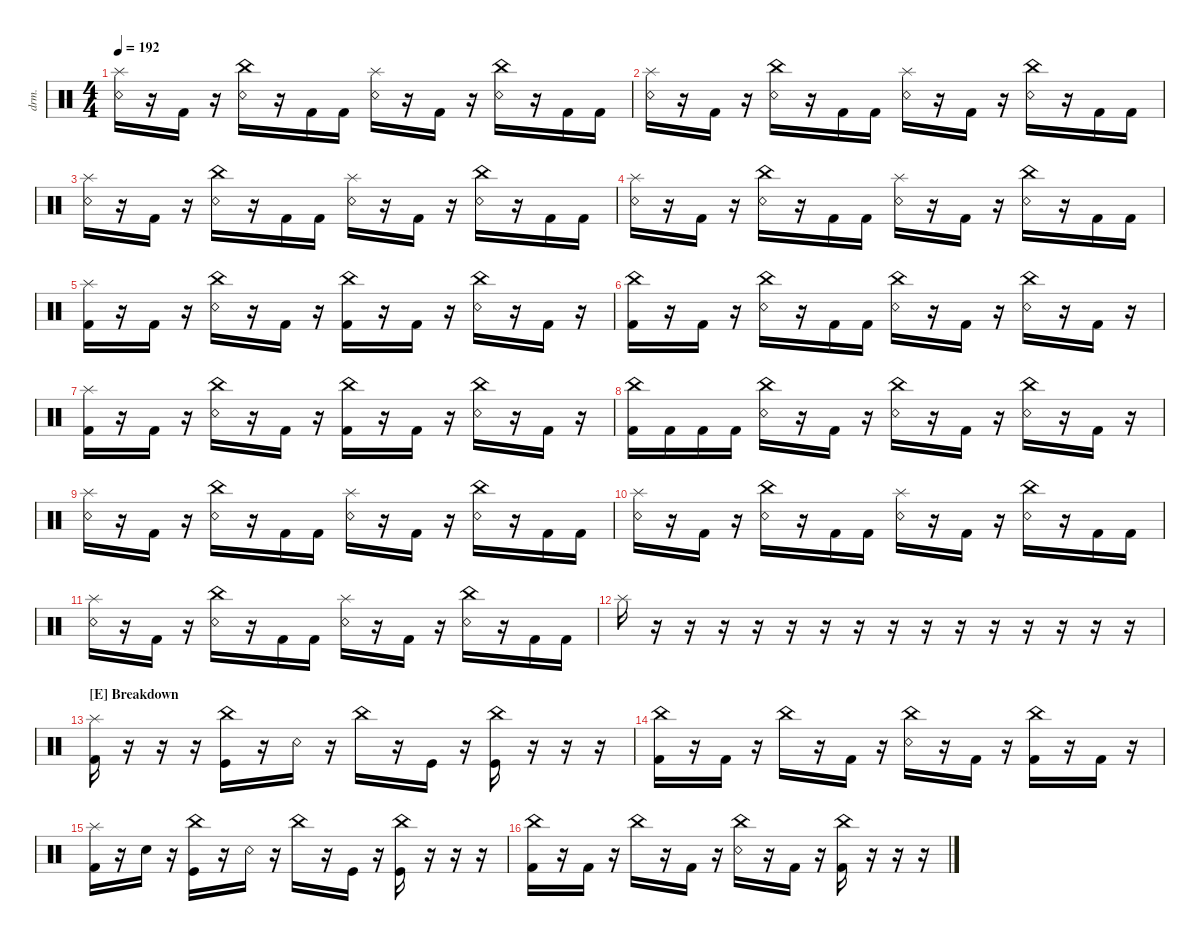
\defaultSystemsLayout 4
\hideDynamics
\bracketExtendMode nobrackets
\otherSystemsTrackNameOrientation horizontal
\track ("Drumkit" "drm.") {instrument percussion}
\staff {score}
\articulation defaults
\ts (4 4)
\tempo 192
\clef neutral
\ks c
("Snare (rim shot)" "Splash (hit)").16{dy ff beam Down} r.16{beam Down} "Kick (hit) 2".16{beam Down} r.16{beam Down} ("China (hit)" "Snare (rim shot)").16{beam Down} r.16{beam Down} "Kick (hit) 2".16{beam Down} "Kick (hit) 2".16{beam Down} ("Snare (rim shot)" "Splash (hit)").16{beam Down} r.16{beam Down} "Kick (hit) 2".16{beam Down} r.16{beam Down} ("China (hit)" "Snare (rim shot)").16{beam Down} r.16{beam Down} "Kick (hit) 2".16{beam Down} "Kick (hit) 2".16{beam Down} |
("Snare (rim shot)" "Splash (hit)").16{beam Down} r.16{beam Down} "Kick (hit) 2".16{beam Down} r.16{beam Down} ("China (hit)" "Snare (rim shot)").16{beam Down} r.16{beam Down} "Kick (hit) 2".16{beam Down} "Kick (hit) 2".16{beam Down} ("Snare (rim shot)" "Splash (hit)").16{beam Down} r.16{beam Down} "Kick (hit) 2".16{beam Down} r.16{beam Down} ("China (hit)" "Snare (rim shot)").16{beam Down} r.16{beam Down} "Kick (hit) 2".16{beam Down} "Kick (hit) 2".16{beam Down} |
("Snare (rim shot)" "Splash (hit)").16{beam Down} r.16{beam Down} "Kick (hit) 2".16{beam Down} r.16{beam Down} ("China (hit)" "Snare (rim shot)").16{beam Down} r.16{beam Down} "Kick (hit) 2".16{beam Down} "Kick (hit) 2".16{beam Down} ("Snare (rim shot)" "Splash (hit)").16{beam Down} r.16{beam Down} "Kick (hit) 2".16{beam Down} r.16{beam Down} ("China (hit)" "Snare (rim shot)").16{beam Down} r.16{beam Down} "Kick (hit) 2".16{beam Down} "Kick (hit) 2".16{beam Down} |
("Snare (rim shot)" "Splash (hit)").16{beam Down} r.16{beam Down} "Kick (hit) 2".16{beam Down} r.16{beam Down} ("China (hit)" "Snare (rim shot)").16{beam Down} r.16{beam Down} "Kick (hit) 2".16{beam Down} "Kick (hit) 2".16{beam Down} ("Snare (rim shot)" "Splash (hit)").16{beam Down} r.16{beam Down} "Kick (hit) 2".16{beam Down} r.16{beam Down} ("China (hit)" "Snare (rim shot)").16{beam Down} r.16{beam Down} "Kick (hit) 2".16{beam Down} "Kick (hit) 2".16{beam Down} |
("Kick (hit) 2" "Splash (hit)").16{beam Down} r.16{beam Down} "Kick (hit) 2".16{beam Down} r.16{beam Down} ("China (hit)" "Snare (rim shot)").16{beam Down} r.16{beam Down} "Kick (hit) 2".16{beam Down} r.16{beam Down} ("China (hit)" "Kick (hit) 2").16{beam Down} r.16{beam Down} "Kick (hit) 2".16{beam Down} r.16{beam Down} ("China (hit)" "Snare (rim shot)").16{beam Down} r.16{beam Down} "Kick (hit) 2".16{beam Down} r.16{beam Down} |
("Kick (hit) 2" "China (hit)").16{beam Down} r.16{beam Down} "Kick (hit) 2".16{beam Down} r.16{beam Down} ("China (hit)" "Snare (rim shot)").16{beam Down} r.16{beam Down} "Kick (hit) 2".16{beam Down} "Kick (hit) 2".16{beam Down} ("China (hit)" "Snare (rim shot)").16{beam Down} r.16{beam Down} "Kick (hit) 2".16{beam Down} r.16{beam Down} ("China (hit)" "Snare (rim shot)").16{beam Down} r.16{beam Down} "Kick (hit) 2".16{beam Down} r.16{beam Down} |
("Kick (hit) 2" "Splash (hit)").16{beam Down} r.16{beam Down} "Kick (hit) 2".16{beam Down} r.16{beam Down} ("China (hit)" "Snare (rim shot)").16{beam Down} r.16{beam Down} "Kick (hit) 2".16{beam Down} r.16{beam Down} ("China (hit)" "Kick (hit) 2").16{beam Down} r.16{beam Down} "Kick (hit) 2".16{beam Down} r.16{beam Down} ("China (hit)" "Snare (rim shot)").16{beam Down} r.16{beam Down} "Kick (hit) 2".16{beam Down} r.16{beam Down} |
("Kick (hit) 2" "China (hit)").16{beam Down} "Kick (hit) 2".16{beam Down} "Kick (hit) 2".16{beam Down} "Kick (hit) 2".16{beam Down} ("China (hit)" "Snare (rim shot)").16{beam Down} r.16{beam Down} "Kick (hit) 2".16{beam Down} r.16{beam Down} ("China (hit)" "Snare (rim shot)").16{beam Down} r.16{beam Down} "Kick (hit) 2".16{beam Down} r.16{beam Down} ("China (hit)" "Snare (rim shot)").16{beam Down} r.16{beam Down} "Kick (hit) 2".16{beam Down} r.16{beam Down} |
("Snare (rim shot)" "Splash (hit)").16{beam Down} r.16{beam Down} "Kick (hit) 2".16{beam Down} r.16{beam Down} ("China (hit)" "Snare (rim shot)").16{beam Down} r.16{beam Down} "Kick (hit) 2".16{beam Down} "Kick (hit) 2".16{beam Down} ("Snare (rim shot)" "Splash (hit)").16{beam Down} r.16{beam Down} "Kick (hit) 2".16{beam Down} r.16{beam Down} ("China (hit)" "Snare (rim shot)").16{beam Down} r.16{beam Down} "Kick (hit) 2".16{beam Down} "Kick (hit) 2".16{beam Down} |
("Snare (rim shot)" "Splash (hit)").16{beam Down} r.16{beam Down} "Kick (hit) 2".16{beam Down} r.16{beam Down} ("China (hit)" "Snare (rim shot)").16{beam Down} r.16{beam Down} "Kick (hit) 2".16{beam Down} "Kick (hit) 2".16{beam Down} ("Snare (rim shot)" "Splash (hit)").16{beam Down} r.16{beam Down} "Kick (hit) 2".16{beam Down} r.16{beam Down} ("China (hit)" "Snare (rim shot)").16{beam Down} r.16{beam Down} "Kick (hit) 2".16{beam Down} "Kick (hit) 2".16{beam Down} |
("Snare (rim shot)" "Splash (hit)").16{beam Down} r.16{beam Down} "Kick (hit) 2".16{beam Down} r.16{beam Down} ("China (hit)" "Snare (rim shot)").16{beam Down} r.16{beam Down} "Kick (hit) 2".16{beam Down} "Kick (hit) 2".16{beam Down} ("Snare (rim shot)" "Splash (hit)").16{beam Down} r.16{beam Down} "Kick (hit) 2".16{beam Down} r.16{beam Down} ("China (hit)" "Snare (rim shot)").16{beam Down} r.16{beam Down} "Kick (hit) 2".16{beam Down} "Kick (hit) 2".16{beam Down} |
"Splash (hit)".16{beam Down} r.16{beam Down} r.16{beam Down} r.16{beam Down} r.16{beam Down} r.16{beam Down} r.16{beam Down} r.16{beam Down} r.16{beam Down} r.16{beam Down} r.16{beam Down} r.16{beam Down} r.16{beam Down} r.16{beam Down} r.16{beam Down} r.16{beam Down} |
\section ("E" "Breakdown")
("Kick (hit) 2" "Splash (hit)").16{beam Down} r.16{beam Down} r.16{beam Down} r.16{beam Down} ("China (hit)" "Kick (hit)").16{beam Down} r.16{beam Down} "Snare (rim shot)".16{beam Down} r.16{beam Down} "China (hit)".16{beam Down} r.16{beam Down} "Kick (hit)".16{beam Down} r.16{beam Down} ("China (hit)" "Kick (hit)").16{beam Down} r.16{beam Down} r.16{beam Down} r.16{beam Down} |
("Kick (hit) 2" "China (hit)").16{beam Down} r.16{beam Down} "Kick (hit) 2".16{beam Down} r.16{beam Down} "China (hit)".16{beam Down} r.16{beam Down} "Kick (hit) 2".16{beam Down} r.16{beam Down} ("Snare (rim shot)" "China (hit)").16{beam Down} r.16{beam Down} "Kick (hit) 2".16{beam Down} r.16{beam Down} ("Kick (hit) 2" "China (hit)").16{beam Down} r.16{beam Down} "Kick (hit) 2".16{beam Down} r.16{beam Down} |
("Kick (hit) 2" "Splash (hit)").16{beam Down} r.16{beam Down} "Snare (hit) 2".16{dy p beam Down} r.16{beam Down} ("China (hit)" "Kick (hit)").16{dy ff beam Down} r.16{beam Down} "Snare (rim shot)".16{beam Down} r.16{beam Down} "China (hit)".16{beam Down} r.16{beam Down} "Kick (hit)".16{beam Down} r.16{beam Down} ("China (hit)" "Kick (hit)").16{beam Down} r.16{beam Down} r.16{beam Down} r.16{beam Down} |
("Kick (hit) 2" "China (hit)").16{beam Down} r.16{beam Down} "Kick (hit) 2".16{beam Down} r.16{beam Down} "China (hit)".16{beam Down} r.16{beam Down} "Kick (hit) 2".16{beam Down} r.16{beam Down} ("Snare (rim shot)" "China (hit)").16{beam Down} r.16{beam Down} "Kick (hit) 2".16{beam Down} r.16{beam Down} ("Kick (hit) 2" "China (hit)").16{beam Down} r.16{beam Down} r.16{beam Down} r.16{beam Down}
